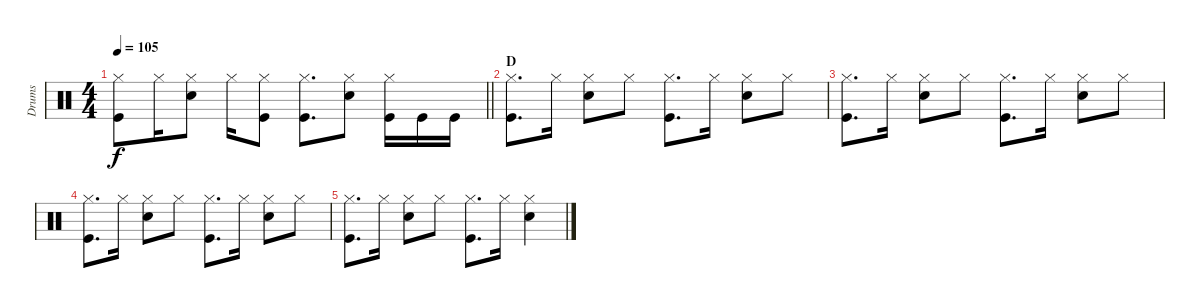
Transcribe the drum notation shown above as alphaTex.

\track ("Drums" "Drums") {instrument percussion}
\staff {score}
\articulation defaults
\ts (4 4)
\tempo 105
\clef neutral
\barLineRight lightlight
\ks c
("Hi-Hat (closed)" "Kick (hit)").8{dy f} "Hi-Hat (closed)".16 ("Hi-Hat (closed)" "Electric Snare (hit)").8 "Hi-Hat (closed)".16 ("Hi-Hat (closed)" "Kick (hit)").8 ("Hi-Hat (closed)" "Kick (hit)").8{d} ("Hi-Hat (closed)" "Electric Snare (hit)").8 ("Hi-Hat (closed)" "Kick (hit)").16 "Kick (hit)".16 "Kick (hit)".16 |
\section ("" "D")
("Hi-Hat (closed)" "Kick (hit)").8{d} "Hi-Hat (closed)".16 ("Hi-Hat (closed)" "Electric Snare (hit)").8 "Hi-Hat (closed)".8 ("Hi-Hat (closed)" "Kick (hit)").8{d} "Hi-Hat (closed)".16 ("Hi-Hat (closed)" "Electric Snare (hit)").8 "Hi-Hat (closed)".8 |
("Hi-Hat (closed)" "Kick (hit)").8{d} "Hi-Hat (closed)".16 ("Hi-Hat (closed)" "Electric Snare (hit)").8 "Hi-Hat (closed)".8 ("Hi-Hat (closed)" "Kick (hit)").8{d} "Hi-Hat (closed)".16 ("Hi-Hat (closed)" "Electric Snare (hit)").8 "Hi-Hat (closed)".8 |
("Hi-Hat (closed)" "Kick (hit)").8{d} "Hi-Hat (closed)".16 ("Hi-Hat (closed)" "Electric Snare (hit)").8 "Hi-Hat (closed)".8 ("Hi-Hat (closed)" "Kick (hit)").8{d} "Hi-Hat (closed)".16 ("Hi-Hat (closed)" "Electric Snare (hit)").8 "Hi-Hat (closed)".8 |
("Hi-Hat (closed)" "Kick (hit)").8{d} "Hi-Hat (closed)".16 ("Hi-Hat (closed)" "Electric Snare (hit)").8 "Hi-Hat (closed)".8 ("Hi-Hat (closed)" "Kick (hit)").8{d} "Hi-Hat (closed)".16 ("Hi-Hat (closed)" "Electric Snare (hit)").4
